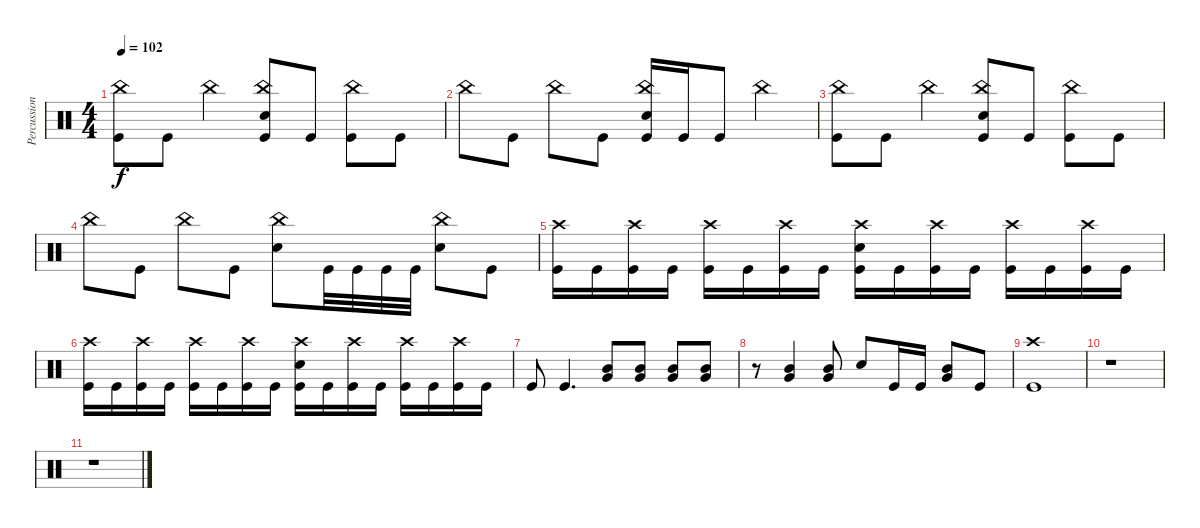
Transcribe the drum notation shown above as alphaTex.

\track ("Percussion" "Percussion") {solo instrument percussion}
\staff {score}
\articulation defaults
\ts (4 4)
\tempo 102
\clef neutral
\ks c
("Kick (hit)" "China (hit)").8{dy f} "Kick (hit)".8 "China (hit)".4 ("Snare (hit) 2" "China (hit)" "Kick (hit)").8 "Kick (hit)".8 ("Kick (hit)" "China (hit)").8 "Kick (hit)".8 |
"China (hit)".8 "Kick (hit)".8 "China (hit)".8 "Kick (hit)".8 ("China (hit)" "Kick (hit)" "Snare (hit) 2").16 "Kick (hit)".16 "Kick (hit)".8 "China (hit)".4 |
("Kick (hit)" "China (hit)").8 "Kick (hit)".8 "China (hit)".4 ("Snare (hit) 2" "China (hit)" "Kick (hit)").8 "Kick (hit)".8 ("Kick (hit)" "China (hit)").8 "Kick (hit)".8 |
"China (hit)".8 "Kick (hit)".8 "China (hit)".8 "Kick (hit)".8 ("China (hit)" "Snare (hit) 2").8 "Kick (hit)".32 "Kick (hit)".32 "Kick (hit)".32 "Kick (hit)".32 ("China (hit)" "Snare (hit) 2").8 "Kick (hit)".8 |
("Kick (hit)" "Crash high (hit)").16 "Kick (hit)".16 ("Kick (hit)" "Crash high (hit)").16 "Kick (hit)".16 ("Kick (hit)" "Crash high (hit)").16 "Kick (hit)".16 ("Kick (hit)" "Crash high (hit)").16 "Kick (hit)".16 ("Kick (hit)" "Crash high (hit)" "Snare (hit) 2").16 "Kick (hit)".16 ("Kick (hit)" "Crash high (hit)").16 "Kick (hit)".16 ("Kick (hit)" "Crash high (hit)").16 "Kick (hit)".16 ("Kick (hit)" "Crash high (hit)").16 "Kick (hit)".16 |
("Kick (hit)" "Crash high (hit)").16 "Kick (hit)".16 ("Kick (hit)" "Crash high (hit)").16 "Kick (hit)".16 ("Kick (hit)" "Crash high (hit)").16 "Kick (hit)".16 ("Kick (hit)" "Crash high (hit)").16 "Kick (hit)".16 ("Kick (hit)" "Crash high (hit)" "Snare (hit) 2").16 "Kick (hit)".16 ("Kick (hit)" "Crash high (hit)").16 "Kick (hit)".16 ("Kick (hit)" "Crash high (hit)").16 "Kick (hit)".16 ("Kick (hit)" "Crash high (hit)").16 "Kick (hit)".16 |
"Kick (hit)".8 "Kick (hit)".4{d} ("Mid Tom (hit)" "Very Low Tom (hit)").8 ("Mid Tom (hit)" "Very Low Tom (hit)").8 ("Mid Tom (hit)" "Very Low Tom (hit)").8 ("Mid Tom (hit)" "Very Low Tom (hit)").8 |
r.8 ("Mid Tom (hit)" "Very Low Tom (hit)").4 ("Mid Tom (hit)" "Very Low Tom (hit)").8 "Snare (hit) 2".8 "Kick (hit)".16 "Kick (hit)".16 ("Mid Tom (hit)" "Very Low Tom (hit)").8 "Kick (hit)".8 |
("Kick (hit)" "Crash high (hit)").1 |
r.1 |
r.1
